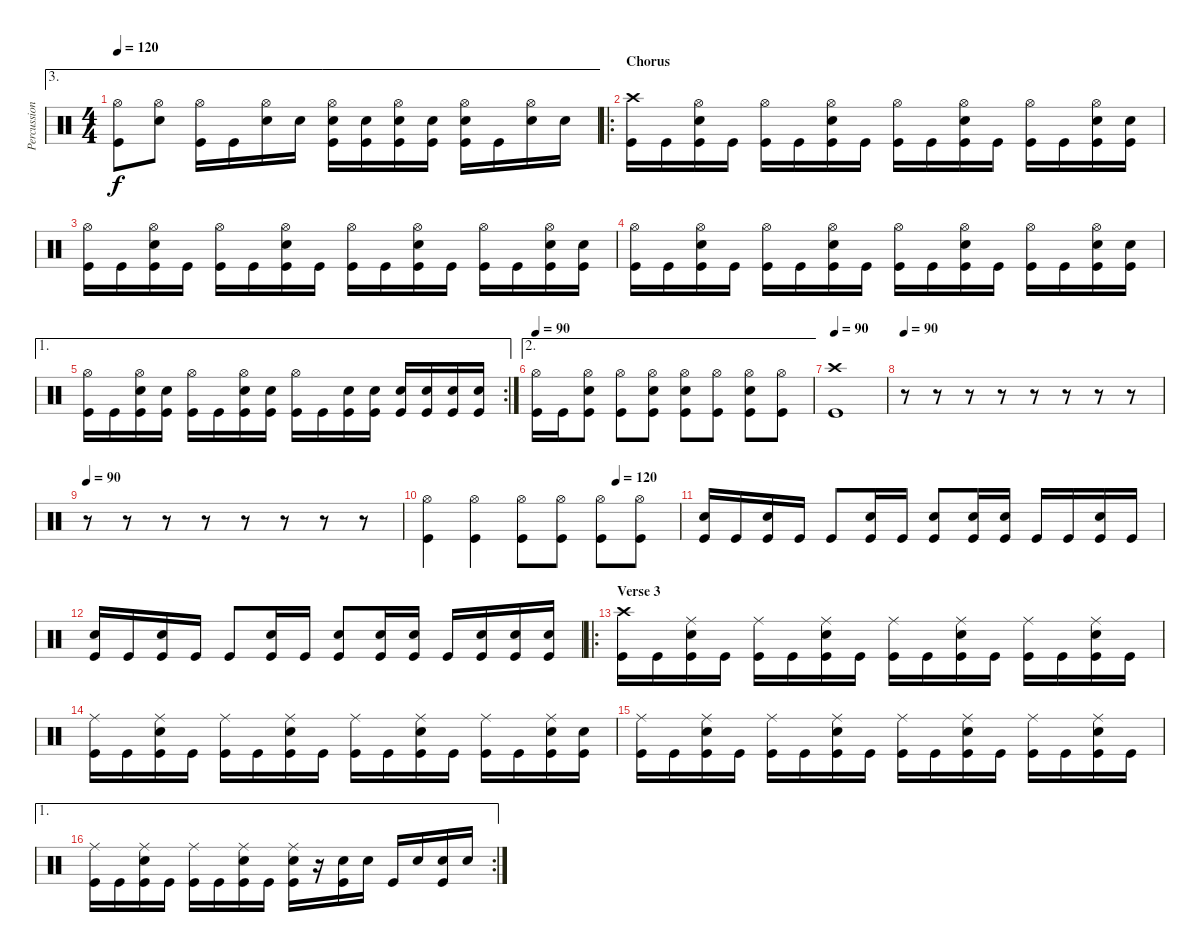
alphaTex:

\track ("Percussion" "Percussion") {instrument percussion}
\staff {score}
\articulation defaults
\ae 3
\ts (4 4)
\tempo 120
\clef neutral
\ks c
("Hi-Hat (open)" "Kick (hit)").8{dy f} ("Hi-Hat (open)" "Snare (hit) 2").8 ("Hi-Hat (open)" "Kick (hit)").16 "Kick (hit)".16 ("Hi-Hat (open)" "Snare (hit) 2").16 "Snare (hit) 2".16 ("Hi-Hat (open)" "Snare (hit) 2" "Kick (hit)").16 ("Snare (hit) 2" "Kick (hit)").16 ("Hi-Hat (open)" "Snare (hit) 2" "Kick (hit)").16 ("Snare (hit) 2" "Kick (hit)").16 ("Hi-Hat (open)" "Snare (hit) 2" "Kick (hit)").16 "Kick (hit)".16 ("Hi-Hat (open)" "Snare (hit) 2").16 "Snare (hit) 2".16 |
\ro
\section ("" "Chorus")
("Crash high (hit)" "Kick (hit)").16 "Kick (hit)".16 ("Hi-Hat (open)" "Snare (hit) 2" "Kick (hit)").16 "Kick (hit)".16 ("Hi-Hat (open)" "Kick (hit)").16 "Kick (hit)".16 ("Hi-Hat (open)" "Snare (hit) 2" "Kick (hit)").16 "Kick (hit)".16 ("Hi-Hat (open)" "Kick (hit)").16 "Kick (hit)".16 ("Hi-Hat (open)" "Snare (hit) 2" "Kick (hit)").16 "Kick (hit)".16 ("Hi-Hat (open)" "Kick (hit)").16 "Kick (hit)".16 ("Hi-Hat (open)" "Snare (hit) 2" "Kick (hit)").16 ("Snare (hit) 2" "Kick (hit)").16 |
("Hi-Hat (open)" "Kick (hit)").16 "Kick (hit)".16 ("Hi-Hat (open)" "Snare (hit) 2" "Kick (hit)").16 "Kick (hit)".16 ("Hi-Hat (open)" "Kick (hit)").16 "Kick (hit)".16 ("Hi-Hat (open)" "Snare (hit) 2" "Kick (hit)").16 "Kick (hit)".16 ("Hi-Hat (open)" "Kick (hit)").16 "Kick (hit)".16 ("Hi-Hat (open)" "Snare (hit) 2" "Kick (hit)").16 "Kick (hit)".16 ("Hi-Hat (open)" "Kick (hit)").16 "Kick (hit)".16 ("Hi-Hat (open)" "Snare (hit) 2" "Kick (hit)").16 ("Snare (hit) 2" "Kick (hit)").16 |
("Hi-Hat (open)" "Kick (hit)").16 "Kick (hit)".16 ("Hi-Hat (open)" "Snare (hit) 2" "Kick (hit)").16 "Kick (hit)".16 ("Hi-Hat (open)" "Kick (hit)").16 "Kick (hit)".16 ("Hi-Hat (open)" "Snare (hit) 2" "Kick (hit)").16 "Kick (hit)".16 ("Hi-Hat (open)" "Kick (hit)").16 "Kick (hit)".16 ("Hi-Hat (open)" "Snare (hit) 2" "Kick (hit)").16 "Kick (hit)".16 ("Hi-Hat (open)" "Kick (hit)").16 "Kick (hit)".16 ("Hi-Hat (open)" "Snare (hit) 2" "Kick (hit)").16 ("Snare (hit) 2" "Kick (hit)").16 |
\ae 1
\rc 2
("Hi-Hat (open)" "Kick (hit)").16 "Kick (hit)".16 ("Hi-Hat (open)" "Snare (hit) 2" "Kick (hit)").16 ("Snare (hit) 2" "Kick (hit)").16 ("Hi-Hat (open)" "Kick (hit)").16 "Kick (hit)".16 ("Hi-Hat (open)" "Snare (hit) 2" "Kick (hit)").16 ("Snare (hit) 2" "Kick (hit)").16 ("Hi-Hat (open)" "Kick (hit)").16 "Kick (hit)".16 ("Snare (hit) 2" "Kick (hit)").16 ("Snare (hit) 2" "Kick (hit)").16 ("Snare (hit) 2" "Kick (hit)").16 ("Snare (hit) 2" "Kick (hit)").16 ("Snare (hit) 2" "Kick (hit)").16 ("Snare (hit) 2" "Kick (hit)").16 |
\ae 2
\tempo 90
("Hi-Hat (open)" "Kick (hit)").16 "Kick (hit)".16 ("Hi-Hat (open)" "Snare (hit) 2" "Kick (hit)").8 ("Hi-Hat (open)" "Kick (hit)").8 ("Hi-Hat (open)" "Snare (hit) 2" "Kick (hit)").8 ("Hi-Hat (open)" "Snare (hit) 2" "Kick (hit)").8 ("Hi-Hat (open)" "Kick (hit)").8 ("Hi-Hat (open)" "Snare (hit) 2" "Kick (hit)").8 ("Hi-Hat (open)" "Kick (hit)").8 |
\tempo 90
("Crash high (hit)" "Kick (hit)").1 |
\tempo 90
r.8 r.8 r.8 r.8 r.8 r.8 r.8 r.8 |
\tempo 90
r.8 r.8 r.8 r.8 r.8 r.8 r.8 r.8 |
\tempo (120 0.75)
("Hi-Hat (open)" "Kick (hit)").4 ("Hi-Hat (open)" "Kick (hit)").4 ("Hi-Hat (open)" "Kick (hit)").8 ("Hi-Hat (open)" "Kick (hit)").8 ("Hi-Hat (open)" "Kick (hit)").8 ("Hi-Hat (open)" "Kick (hit)").8 |
("Snare (hit) 2" "Kick (hit)").16 "Kick (hit)".16 ("Snare (hit) 2" "Kick (hit)").16 "Kick (hit)".16 "Kick (hit)".8 ("Snare (hit) 2" "Kick (hit)").16 "Kick (hit)".16 ("Snare (hit) 2" "Kick (hit)").8 ("Snare (hit) 2" "Kick (hit)").16 ("Snare (hit) 2" "Kick (hit)").16 "Kick (hit)".16 "Kick (hit)".16 ("Snare (hit) 2" "Kick (hit)").16 "Kick (hit)".16 |
("Snare (hit) 2" "Kick (hit)").16 "Kick (hit)".16 ("Snare (hit) 2" "Kick (hit)").16 "Kick (hit)".16 "Kick (hit)".8 ("Snare (hit) 2" "Kick (hit)").16 "Kick (hit)".16 ("Snare (hit) 2" "Kick (hit)").8 ("Snare (hit) 2" "Kick (hit)").16 ("Snare (hit) 2" "Kick (hit)").16 "Kick (hit)".16 ("Snare (hit) 2" "Kick (hit)").16 ("Snare (hit) 2" "Kick (hit)").16 ("Snare (hit) 2" "Kick (hit)").16 |
\ro
\section ("" "Verse 3")
("Crash high (hit)" "Kick (hit)").16 "Kick (hit)".16 ("Ride (middle)" "Snare (hit) 2" "Kick (hit)").16 "Kick (hit)".16 ("Ride (middle)" "Kick (hit)").16 "Kick (hit)".16 ("Ride (middle)" "Snare (hit) 2" "Kick (hit)").16 "Kick (hit)".16 ("Ride (middle)" "Kick (hit)").16 "Kick (hit)".16 ("Ride (middle)" "Snare (hit) 2" "Kick (hit)").16 "Kick (hit)".16 ("Ride (middle)" "Kick (hit)").16 "Kick (hit)".16 ("Ride (middle)" "Snare (hit) 2" "Kick (hit)").16 "Kick (hit)".16 |
("Ride (middle)" "Kick (hit)").16 "Kick (hit)".16 ("Ride (middle)" "Snare (hit) 2" "Kick (hit)").16 "Kick (hit)".16 ("Ride (middle)" "Kick (hit)").16 "Kick (hit)".16 ("Ride (middle)" "Snare (hit) 2" "Kick (hit)").16 "Kick (hit)".16 ("Ride (middle)" "Kick (hit)").16 "Kick (hit)".16 ("Ride (middle)" "Snare (hit) 2" "Kick (hit)").16 "Kick (hit)".16 ("Ride (middle)" "Kick (hit)").16 "Kick (hit)".16 ("Ride (middle)" "Snare (hit) 2" "Kick (hit)").16 ("Snare (hit) 2" "Kick (hit)").16 |
("Ride (middle)" "Kick (hit)").16 "Kick (hit)".16 ("Ride (middle)" "Snare (hit) 2" "Kick (hit)").16 "Kick (hit)".16 ("Ride (middle)" "Kick (hit)").16 "Kick (hit)".16 ("Ride (middle)" "Snare (hit) 2" "Kick (hit)").16 "Kick (hit)".16 ("Ride (middle)" "Kick (hit)").16 "Kick (hit)".16 ("Ride (middle)" "Snare (hit) 2" "Kick (hit)").16 "Kick (hit)".16 ("Ride (middle)" "Kick (hit)").16 "Kick (hit)".16 ("Ride (middle)" "Snare (hit) 2" "Kick (hit)").16 "Kick (hit)".16 |
\ae 1
\rc 2
("Ride (middle)" "Kick (hit)").16 "Kick (hit)".16 ("Ride (middle)" "Snare (hit) 2" "Kick (hit)").16 "Kick (hit)".16 ("Ride (middle)" "Kick (hit)").16 "Kick (hit)".16 ("Ride (middle)" "Snare (hit) 2" "Kick (hit)").16 "Kick (hit)".16 ("Ride (middle)" "Snare (hit) 2" "Kick (hit)").16 r.16 ("Snare (hit) 2" "Kick (hit)").16 "Snare (hit) 2".16 "Kick (hit)".16 "Snare (hit) 2".16 ("Snare (hit) 2" "Kick (hit)").16 "Snare (hit) 2".16
